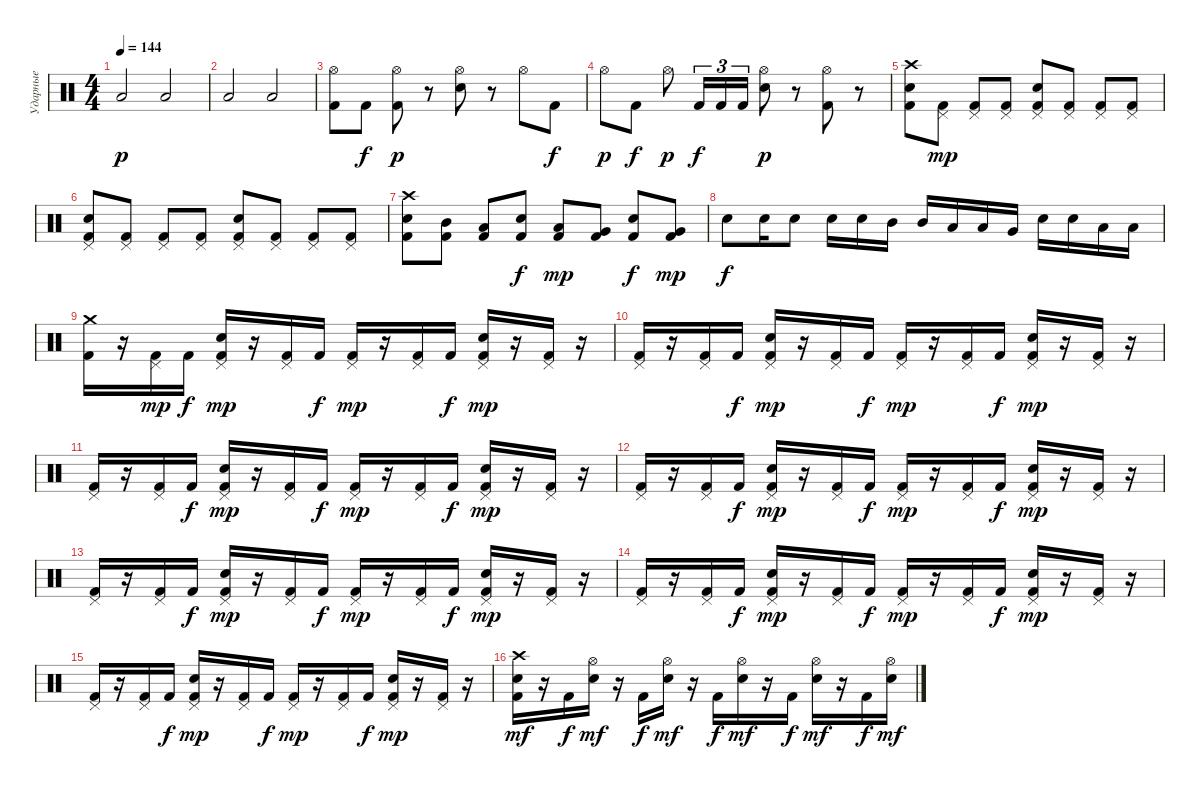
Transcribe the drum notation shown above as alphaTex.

\track ("Ударные" "Ударные") {instrument percussion}
\staff {score}
\articulation defaults
\ts (4 4)
\tempo 144
\clef neutral
\ks c "Low Floor Tom (hit)".2{dy p} "Low Floor Tom (hit)".2
|
"Low Floor Tom (hit)".2 "Low Floor Tom (hit)".2 |
("Hi-Hat (open)" "Kick (hit) 2").8 "Kick (hit) 2".8{dy f} ("Hi-Hat (open)" "Kick (hit) 2").8{dy p} r.8 ("Hi-Hat (open)" "Electric Snare (hit)").8 r.8 "Hi-Hat (open)".8 "Kick (hit) 2".8{dy f} |
"Hi-Hat (open)".8{dy p} "Kick (hit) 2".8{dy f} "Hi-Hat (open)".8{dy p} "Kick (hit) 2".16{tu (3 2) dy f} "Kick (hit) 2".16{tu (3 2)} "Kick (hit) 2".16{tu (3 2)} ("Hi-Hat (open)" "Electric Snare (hit)").8{dy p} r.8 ("Hi-Hat (open)" "Kick (hit) 2").8 r.8 |
("Crash high (hit)" "Electric Snare (hit)" "Kick (hit) 2").8 ("Pedal Hi-Hat (hit)" "Kick (hit) 2").8{dy mp} ("Pedal Hi-Hat (hit)" "Kick (hit) 2").8 ("Pedal Hi-Hat (hit)" "Kick (hit) 2").8 ("Pedal Hi-Hat (hit)" "Electric Snare (hit)" "Kick (hit) 2").8 ("Pedal Hi-Hat (hit)" "Kick (hit) 2").8 ("Pedal Hi-Hat (hit)" "Kick (hit) 2").8 ("Pedal Hi-Hat (hit)" "Kick (hit) 2").8 |
("Pedal Hi-Hat (hit)" "Electric Snare (hit)" "Kick (hit) 2").8 ("Pedal Hi-Hat (hit)" "Kick (hit) 2").8 ("Pedal Hi-Hat (hit)" "Kick (hit) 2").8 ("Pedal Hi-Hat (hit)" "Kick (hit) 2").8 ("Pedal Hi-Hat (hit)" "Electric Snare (hit)" "Kick (hit) 2").8 ("Pedal Hi-Hat (hit)" "Kick (hit) 2").8 ("Pedal Hi-Hat (hit)" "Kick (hit) 2").8 ("Pedal Hi-Hat (hit)" "Kick (hit) 2").8 |
("Crash high (hit)" "Electric Snare (hit)" "Kick (hit) 2").8 ("Mid Tom (hit)" "Kick (hit) 2").8 ("Low Tom (hit)" "Kick (hit) 2").8 ("Electric Snare (hit)" "Kick (hit) 2").8{dy f} ("Low Tom (hit)" "Kick (hit) 2").8{dy mp} ("Very Low Tom (hit)" "Kick (hit) 2").8 ("Electric Snare (hit)" "Kick (hit) 2").8{dy f} ("Very Low Tom (hit)" "Kick (hit) 2").8{dy mp} |
"Electric Snare (hit)".8{dy f} "Electric Snare (hit)".16 "Electric Snare (hit)".8 "Electric Snare (hit)".16 "Electric Snare (hit)".16 "Mid Tom (hit)".16 "Mid Tom (hit)".16 "Low Tom (hit)".16 "Low Tom (hit)".16 "Very Low Tom (hit)".16 "Electric Snare (hit)".16 "Electric Snare (hit)".16 "Low Floor Tom (hit)".16 "Low Floor Tom (hit)".16 |
("Crash medium (hit)" "Kick (hit) 2").16 r.16 ("Pedal Hi-Hat (hit)" "Kick (hit) 2").16{dy mp} "Kick (hit) 2".16{dy f} ("Pedal Hi-Hat (hit)" "Electric Snare (hit)" "Kick (hit) 2").16{dy mp} r.16 ("Pedal Hi-Hat (hit)" "Kick (hit) 2").16 "Kick (hit) 2".16{dy f} ("Pedal Hi-Hat (hit)" "Kick (hit) 2").16{dy mp} r.16 ("Pedal Hi-Hat (hit)" "Kick (hit) 2").16 "Kick (hit) 2".16{dy f} ("Pedal Hi-Hat (hit)" "Electric Snare (hit)" "Kick (hit) 2").16{dy mp} r.16 ("Pedal Hi-Hat (hit)" "Kick (hit) 2").16 r.16 |
("Pedal Hi-Hat (hit)" "Kick (hit) 2").16 r.16 ("Pedal Hi-Hat (hit)" "Kick (hit) 2").16 "Kick (hit) 2".16{dy f} ("Pedal Hi-Hat (hit)" "Electric Snare (hit)" "Kick (hit) 2").16{dy mp} r.16 ("Pedal Hi-Hat (hit)" "Kick (hit) 2").16 "Kick (hit) 2".16{dy f} ("Pedal Hi-Hat (hit)" "Kick (hit) 2").16{dy mp} r.16 ("Pedal Hi-Hat (hit)" "Kick (hit) 2").16 "Kick (hit) 2".16{dy f} ("Pedal Hi-Hat (hit)" "Electric Snare (hit)" "Kick (hit) 2").16{dy mp} r.16 ("Pedal Hi-Hat (hit)" "Kick (hit) 2").16 r.16 |
("Pedal Hi-Hat (hit)" "Kick (hit) 2").16 r.16 ("Pedal Hi-Hat (hit)" "Kick (hit) 2").16 "Kick (hit) 2".16{dy f} ("Pedal Hi-Hat (hit)" "Electric Snare (hit)" "Kick (hit) 2").16{dy mp} r.16 ("Pedal Hi-Hat (hit)" "Kick (hit) 2").16 "Kick (hit) 2".16{dy f} ("Pedal Hi-Hat (hit)" "Kick (hit) 2").16{dy mp} r.16 ("Pedal Hi-Hat (hit)" "Kick (hit) 2").16 "Kick (hit) 2".16{dy f} ("Pedal Hi-Hat (hit)" "Electric Snare (hit)" "Kick (hit) 2").16{dy mp} r.16 ("Pedal Hi-Hat (hit)" "Kick (hit) 2").16 r.16 |
("Pedal Hi-Hat (hit)" "Kick (hit) 2").16 r.16 ("Pedal Hi-Hat (hit)" "Kick (hit) 2").16 "Kick (hit) 2".16{dy f} ("Pedal Hi-Hat (hit)" "Electric Snare (hit)" "Kick (hit) 2").16{dy mp} r.16 ("Pedal Hi-Hat (hit)" "Kick (hit) 2").16 "Kick (hit) 2".16{dy f} ("Pedal Hi-Hat (hit)" "Kick (hit) 2").16{dy mp} r.16 ("Pedal Hi-Hat (hit)" "Kick (hit) 2").16 "Kick (hit) 2".16{dy f} ("Pedal Hi-Hat (hit)" "Electric Snare (hit)" "Kick (hit) 2").16{dy mp} r.16 ("Pedal Hi-Hat (hit)" "Kick (hit) 2").16 r.16 |
("Pedal Hi-Hat (hit)" "Kick (hit) 2").16 r.16 ("Pedal Hi-Hat (hit)" "Kick (hit) 2").16 "Kick (hit) 2".16{dy f} ("Pedal Hi-Hat (hit)" "Electric Snare (hit)" "Kick (hit) 2").16{dy mp} r.16 ("Pedal Hi-Hat (hit)" "Kick (hit) 2").16 "Kick (hit) 2".16{dy f} ("Pedal Hi-Hat (hit)" "Kick (hit) 2").16{dy mp} r.16 ("Pedal Hi-Hat (hit)" "Kick (hit) 2").16 "Kick (hit) 2".16{dy f} ("Pedal Hi-Hat (hit)" "Electric Snare (hit)" "Kick (hit) 2").16{dy mp} r.16 ("Pedal Hi-Hat (hit)" "Kick (hit) 2").16 r.16 |
("Pedal Hi-Hat (hit)" "Kick (hit) 2").16 r.16 ("Pedal Hi-Hat (hit)" "Kick (hit) 2").16 "Kick (hit) 2".16{dy f} ("Pedal Hi-Hat (hit)" "Electric Snare (hit)" "Kick (hit) 2").16{dy mp} r.16 ("Pedal Hi-Hat (hit)" "Kick (hit) 2").16 "Kick (hit) 2".16{dy f} ("Pedal Hi-Hat (hit)" "Kick (hit) 2").16{dy mp} r.16 ("Pedal Hi-Hat (hit)" "Kick (hit) 2").16 "Kick (hit) 2".16{dy f} ("Pedal Hi-Hat (hit)" "Electric Snare (hit)" "Kick (hit) 2").16{dy mp} r.16 ("Pedal Hi-Hat (hit)" "Kick (hit) 2").16 r.16 |
("Pedal Hi-Hat (hit)" "Kick (hit) 2").16 r.16 ("Pedal Hi-Hat (hit)" "Kick (hit) 2").16 "Kick (hit) 2".16{dy f} ("Pedal Hi-Hat (hit)" "Electric Snare (hit)" "Kick (hit) 2").16{dy mp} r.16 ("Pedal Hi-Hat (hit)" "Kick (hit) 2").16 "Kick (hit) 2".16{dy f} ("Pedal Hi-Hat (hit)" "Kick (hit) 2").16{dy mp} r.16 ("Pedal Hi-Hat (hit)" "Kick (hit) 2").16 "Kick (hit) 2".16{dy f} ("Pedal Hi-Hat (hit)" "Electric Snare (hit)" "Kick (hit) 2").16{dy mp} r.16 ("Pedal Hi-Hat (hit)" "Kick (hit) 2").16 r.16 |
("Crash high (hit)" "Electric Snare (hit)" "Kick (hit) 2").16{dy mf} r.16 "Kick (hit) 2".16{dy f} ("Hi-Hat (open)" "Electric Snare (hit)").16{dy mf} r.16 "Kick (hit) 2".16{dy f} ("Hi-Hat (open)" "Electric Snare (hit)").16{dy mf} r.16 "Kick (hit) 2".16{dy f} ("Hi-Hat (open)" "Electric Snare (hit)").16{dy mf} r.16 "Kick (hit) 2".16{dy f} ("Hi-Hat (open)" "Electric Snare (hit)").16{dy mf} r.16 "Kick (hit) 2".16{dy f} ("Hi-Hat (open)" "Electric Snare (hit)").16{dy mf}
